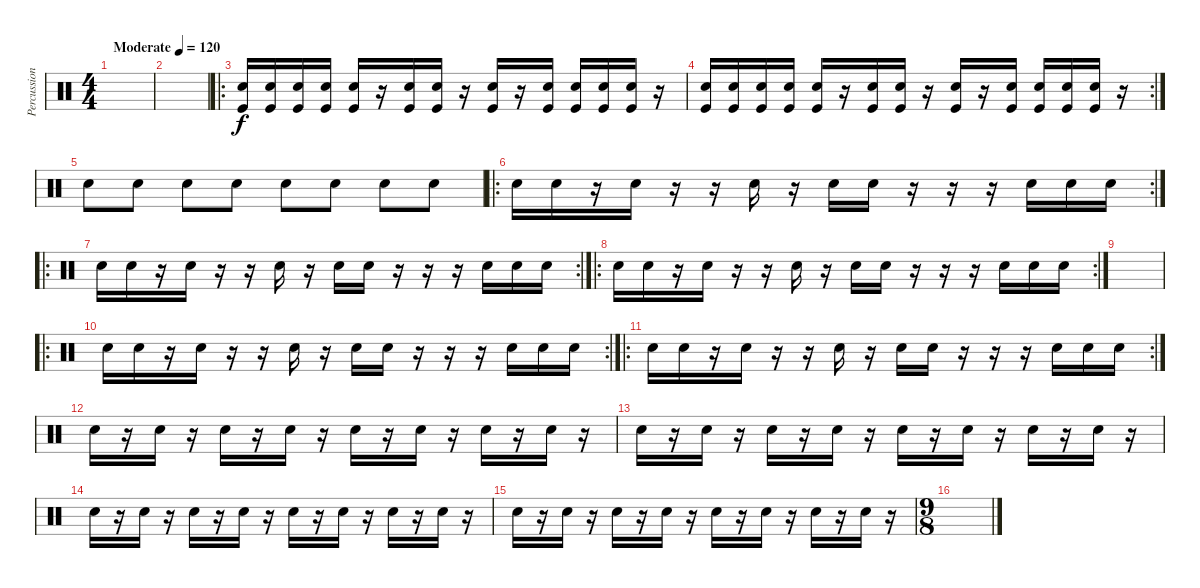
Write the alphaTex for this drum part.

\track ("Percussion" "Percussion") {instrument percussion}
\staff {score}
\articulation defaults
\ts (4 4)
\tempo (120 "Moderate")
\clef neutral
\ks c
|
|
\ro
("Snare (hit) 2" "Kick (hit)").16 ("Snare (hit) 2" "Kick (hit)").16 ("Snare (hit) 2" "Kick (hit)").16 ("Snare (hit) 2" "Kick (hit)").16 ("Snare (hit) 2" "Kick (hit)").16 r.16 ("Snare (hit) 2" "Kick (hit)").16 ("Snare (hit) 2" "Kick (hit)").16 r.16 ("Snare (hit) 2" "Kick (hit)").16 r.16 ("Snare (hit) 2" "Kick (hit)").16 ("Snare (hit) 2" "Kick (hit)").16 ("Snare (hit) 2" "Kick (hit)").16 ("Snare (hit) 2" "Kick (hit)").16 r.16 |
\rc 2
("Snare (hit) 2" "Kick (hit)").16 ("Snare (hit) 2" "Kick (hit)").16 ("Snare (hit) 2" "Kick (hit)").16 ("Snare (hit) 2" "Kick (hit)").16 ("Snare (hit) 2" "Kick (hit)").16 r.16 ("Snare (hit) 2" "Kick (hit)").16 ("Snare (hit) 2" "Kick (hit)").16 r.16 ("Snare (hit) 2" "Kick (hit)").16 r.16 ("Snare (hit) 2" "Kick (hit)").16 ("Snare (hit) 2" "Kick (hit)").16 ("Snare (hit) 2" "Kick (hit)").16 ("Snare (hit) 2" "Kick (hit)").16 r.16 |
"Snare (hit) 2".8 "Snare (hit) 2".8 "Snare (hit) 2".8 "Snare (hit) 2".8 "Snare (hit) 2".8 "Snare (hit) 2".8 "Snare (hit) 2".8 "Snare (hit) 2".8 |
\ro
\rc 2 "Snare (hit) 2".16 "Snare (hit) 2".16
r.16 "Snare (hit) 2".16 r.16 r.16 "Snare (hit) 2".16 r.16 "Snare (hit) 2".16 "Snare (hit) 2".16 r.16 r.16 r.16 "Snare (hit) 2".16 "Snare (hit) 2".16 "Snare (hit) 2".16 |
\ro
\rc 2 "Snare (hit) 2".16 "Snare (hit) 2".16
r.16 "Snare (hit) 2".16 r.16 r.16 "Snare (hit) 2".16 r.16 "Snare (hit) 2".16 "Snare (hit) 2".16 r.16 r.16 r.16 "Snare (hit) 2".16 "Snare (hit) 2".16 "Snare (hit) 2".16 |
\ro
\rc 2 "Snare (hit) 2".16 "Snare (hit) 2".16
r.16 "Snare (hit) 2".16 r.16 r.16 "Snare (hit) 2".16 r.16 "Snare (hit) 2".16 "Snare (hit) 2".16 r.16 r.16 r.16 "Snare (hit) 2".16 "Snare (hit) 2".16 "Snare (hit) 2".16 |
|
\ro
\rc 2 "Snare (hit) 2".16 "Snare (hit) 2".16
r.16 "Snare (hit) 2".16 r.16 r.16 "Snare (hit) 2".16 r.16 "Snare (hit) 2".16 "Snare (hit) 2".16 r.16 r.16 r.16 "Snare (hit) 2".16 "Snare (hit) 2".16 "Snare (hit) 2".16 |
\ro
\rc 2 "Snare (hit) 2".16 "Snare (hit) 2".16
r.16 "Snare (hit) 2".16 r.16 r.16 "Snare (hit) 2".16 r.16 "Snare (hit) 2".16 "Snare (hit) 2".16 r.16 r.16 r.16 "Snare (hit) 2".16 "Snare (hit) 2".16 "Snare (hit) 2".16 |
"Snare (hit) 2".16 r.16 "Snare (hit) 2".16 r.16 "Snare (hit) 2".16 r.16 "Snare (hit) 2".16 r.16 "Snare (hit) 2".16 r.16 "Snare (hit) 2".16 r.16 "Snare (hit) 2".16 r.16 "Snare (hit) 2".16 r.16 |
"Snare (hit) 2".16 r.16 "Snare (hit) 2".16 r.16 "Snare (hit) 2".16 r.16 "Snare (hit) 2".16 r.16 "Snare (hit) 2".16 r.16 "Snare (hit) 2".16 r.16 "Snare (hit) 2".16 r.16 "Snare (hit) 2".16 r.16 |
"Snare (hit) 2".16 r.16 "Snare (hit) 2".16 r.16 "Snare (hit) 2".16 r.16 "Snare (hit) 2".16 r.16 "Snare (hit) 2".16 r.16 "Snare (hit) 2".16 r.16 "Snare (hit) 2".16 r.16 "Snare (hit) 2".16 r.16 |
"Snare (hit) 2".16 r.16 "Snare (hit) 2".16 r.16 "Snare (hit) 2".16 r.16 "Snare (hit) 2".16 r.16 "Snare (hit) 2".16 r.16 "Snare (hit) 2".16 r.16 "Snare (hit) 2".16 r.16 "Snare (hit) 2".16 r.16 |
\ts (9 8)
